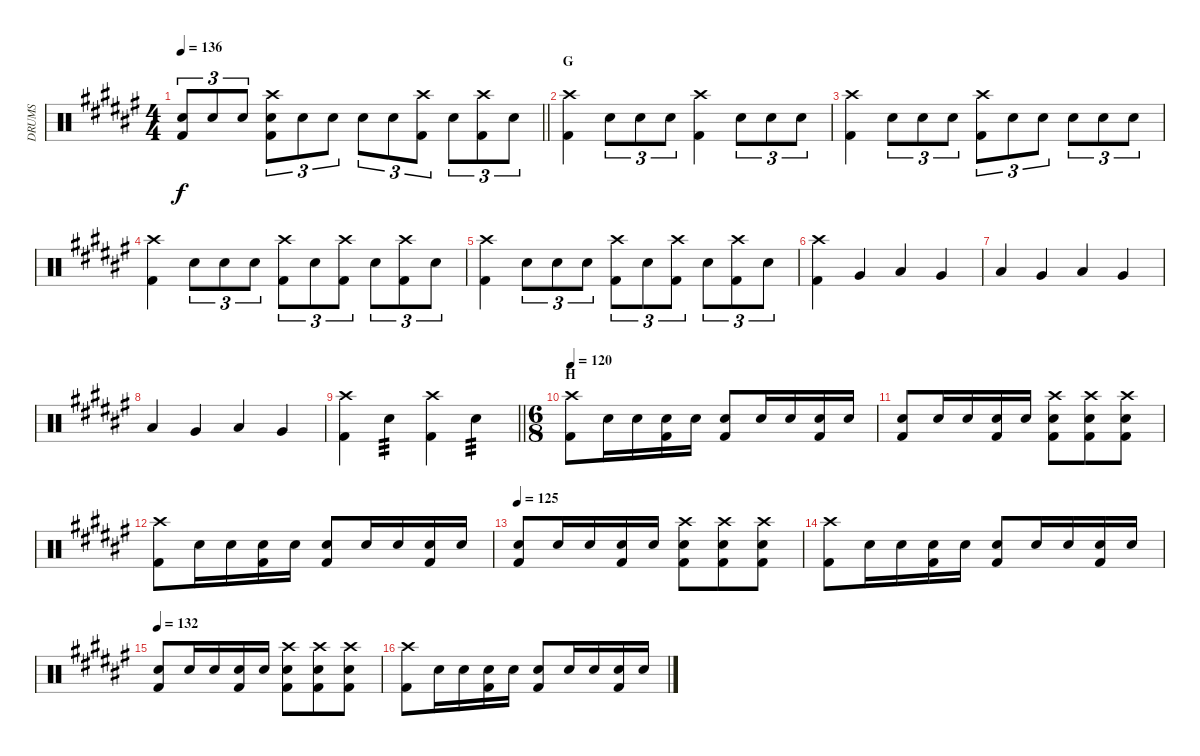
\track ("DRUMS" "DRUMS") {instrument percussion}
\staff {score}
\articulation defaults
\ts (4 4)
\tempo 136
\clef neutral
\barLineRight lightlight
\ks f#
("Snare (hit) 2" "Kick (hit) 2").8{tu (3 2) dy f} "Snare (hit) 2".8{tu (3 2)} "Snare (hit) 2".8{tu (3 2)} ("Crash high (hit)" "Snare (hit) 2" "Kick (hit) 2").8{tu (3 2)} "Snare (hit) 2".8{tu (3 2)} "Snare (hit) 2".8{tu (3 2)} "Snare (hit) 2".8{tu (3 2)} "Snare (hit) 2".8{tu (3 2)} ("Crash high (hit)" "Kick (hit) 2").8{tu (3 2)} "Snare (hit) 2".8{tu (3 2)} ("Crash high (hit)" "Kick (hit) 2").8{tu (3 2)} "Snare (hit) 2".8{tu (3 2)} |
\section ("" "G")
("Crash high (hit)" "Kick (hit) 2").4 "Snare (hit) 2".8{tu (3 2)} "Snare (hit) 2".8{tu (3 2)} "Snare (hit) 2".8{tu (3 2)} ("Crash high (hit)" "Kick (hit) 2").4 "Snare (hit) 2".8{tu (3 2)} "Snare (hit) 2".8{tu (3 2)} "Snare (hit) 2".8{tu (3 2)} |
("Crash high (hit)" "Kick (hit) 2").4 "Snare (hit) 2".8{tu (3 2)} "Snare (hit) 2".8{tu (3 2)} "Snare (hit) 2".8{tu (3 2)} ("Crash high (hit)" "Kick (hit) 2").8{tu (3 2)} "Snare (hit) 2".8{tu (3 2)} "Snare (hit) 2".8{tu (3 2)} "Snare (hit) 2".8{tu (3 2)} "Snare (hit) 2".8{tu (3 2)} "Snare (hit) 2".8{tu (3 2)} |
("Crash high (hit)" "Kick (hit) 2").4 "Snare (hit) 2".8{tu (3 2)} "Snare (hit) 2".8{tu (3 2)} "Snare (hit) 2".8{tu (3 2)} ("Crash high (hit)" "Kick (hit) 2").8{tu (3 2)} "Snare (hit) 2".8{tu (3 2)} ("Crash high (hit)" "Kick (hit) 2").8{tu (3 2)} "Snare (hit) 2".8{tu (3 2)} ("Crash high (hit)" "Kick (hit) 2").8{tu (3 2)} "Snare (hit) 2".8{tu (3 2)} |
("Crash high (hit)" "Kick (hit) 2").4 "Snare (hit) 2".8{tu (3 2)} "Snare (hit) 2".8{tu (3 2)} "Snare (hit) 2".8{tu (3 2)} ("Crash high (hit)" "Kick (hit) 2").8{tu (3 2)} "Snare (hit) 2".8{tu (3 2)} ("Crash high (hit)" "Kick (hit) 2").8{tu (3 2)} "Snare (hit) 2".8{tu (3 2)} ("Crash high (hit)" "Kick (hit) 2").8{tu (3 2)} "Snare (hit) 2".8{tu (3 2)} |
("Crash high (hit)" "Kick (hit) 2").4 "Very Low Tom (hit)".4 "Low Tom (hit)".4 "Very Low Tom (hit)".4 |
"Low Tom (hit)".4 "Very Low Tom (hit)".4 "Low Tom (hit)".4 "Very Low Tom (hit)".4 |
"Low Tom (hit)".4 "Very Low Tom (hit)".4 "Low Tom (hit)".4 "Very Low Tom (hit)".4 |
\barLineRight lightlight
("Crash high (hit)" "Kick (hit) 2").4 "Snare (hit) 2".4{tp 3} ("Crash high (hit)" "Kick (hit) 2").4 "Snare (hit) 2".4{tp 3} |
\ts (6 8)
\section ("" "H")
\tempo 120
("Crash high (hit)" "Kick (hit) 2").8 "Snare (hit) 2".16 "Snare (hit) 2".16 ("Kick (hit) 2" "Snare (hit) 2").16 "Snare (hit) 2".16 ("Snare (hit) 2" "Kick (hit) 2").8 "Snare (hit) 2".16 "Snare (hit) 2".16 ("Kick (hit) 2" "Snare (hit) 2").16 "Snare (hit) 2".16 |
("Kick (hit) 2" "Snare (hit) 2").8 "Snare (hit) 2".16 "Snare (hit) 2".16 ("Kick (hit) 2" "Snare (hit) 2").16 "Snare (hit) 2".16 ("Kick (hit) 2" "Snare (hit) 2" "Crash high (hit)").8 ("Kick (hit) 2" "Snare (hit) 2" "Crash high (hit)").8 ("Kick (hit) 2" "Snare (hit) 2" "Crash high (hit)").8 |
("Crash high (hit)" "Kick (hit) 2").8 "Snare (hit) 2".16 "Snare (hit) 2".16 ("Kick (hit) 2" "Snare (hit) 2").16 "Snare (hit) 2".16 ("Snare (hit) 2" "Kick (hit) 2").8 "Snare (hit) 2".16 "Snare (hit) 2".16 ("Kick (hit) 2" "Snare (hit) 2").16 "Snare (hit) 2".16 |
\tempo 125
("Kick (hit) 2" "Snare (hit) 2").8 "Snare (hit) 2".16 "Snare (hit) 2".16 ("Kick (hit) 2" "Snare (hit) 2").16 "Snare (hit) 2".16 ("Kick (hit) 2" "Snare (hit) 2" "Crash high (hit)").8 ("Kick (hit) 2" "Snare (hit) 2" "Crash high (hit)").8 ("Kick (hit) 2" "Snare (hit) 2" "Crash high (hit)").8 |
("Crash high (hit)" "Kick (hit) 2").8 "Snare (hit) 2".16 "Snare (hit) 2".16 ("Kick (hit) 2" "Snare (hit) 2").16 "Snare (hit) 2".16 ("Snare (hit) 2" "Kick (hit) 2").8 "Snare (hit) 2".16 "Snare (hit) 2".16 ("Kick (hit) 2" "Snare (hit) 2").16 "Snare (hit) 2".16 |
\tempo 132
("Kick (hit) 2" "Snare (hit) 2").8 "Snare (hit) 2".16 "Snare (hit) 2".16 ("Kick (hit) 2" "Snare (hit) 2").16 "Snare (hit) 2".16 ("Kick (hit) 2" "Snare (hit) 2" "Crash high (hit)").8 ("Kick (hit) 2" "Snare (hit) 2" "Crash high (hit)").8 ("Kick (hit) 2" "Snare (hit) 2" "Crash high (hit)").8 |
("Crash high (hit)" "Kick (hit) 2").8 "Snare (hit) 2".16 "Snare (hit) 2".16 ("Kick (hit) 2" "Snare (hit) 2").16 "Snare (hit) 2".16 ("Snare (hit) 2" "Kick (hit) 2").8 "Snare (hit) 2".16 "Snare (hit) 2".16 ("Kick (hit) 2" "Snare (hit) 2").16 "Snare (hit) 2".16
